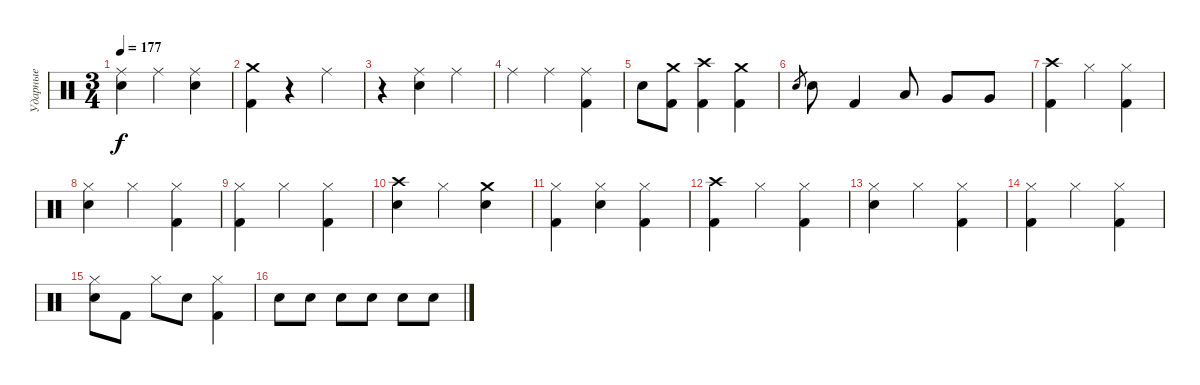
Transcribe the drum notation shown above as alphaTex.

\track ("Ударные" "Ударные") {instrument percussion}
\staff {score}
\articulation defaults
\ts (3 4)
\tempo 177
\clef neutral
\ks c
("Ride (middle)" "Snare (hit) 2").4{dy f} "Ride (middle)".4 ("Ride (middle)" "Snare (hit) 2").4 |
("Crash medium (hit)" "Kick (hit) 2").4 r.4 "Ride (middle)".4 |
r.4 ("Ride (middle)" "Snare (hit) 2").4 "Ride (middle)".4 |
"Ride (middle)".4 "Ride (middle)".4 ("Ride (middle)" "Kick (hit) 2").4 |
"Snare (hit) 2".8 ("Crash medium (hit)" "Kick (hit) 2").8 ("Crash high (hit)" "Kick (hit) 2").4 ("Crash medium (hit)" "Kick (hit) 2").4 |
"Snare (hit) 2".8{gr} "Snare (hit) 2".8 "Kick (hit) 2".4 "Low Tom (hit)".8 "Very Low Tom (hit)".8 "Very Low Tom (hit)".8 |
("Crash high (hit)" "Kick (hit) 2").4 "Hi-Hat (closed)".4 ("Hi-Hat (closed)" "Kick (hit) 2").4 |
("Hi-Hat (closed)" "Snare (hit) 2").4 "Hi-Hat (closed)".4 ("Hi-Hat (closed)" "Kick (hit) 2").4 |
("Hi-Hat (closed)" "Kick (hit) 2").4 "Hi-Hat (closed)".4 ("Hi-Hat (closed)" "Kick (hit) 2").4 |
("Crash high (hit)" "Snare (hit) 2").4 "Hi-Hat (closed)".4 ("Crash medium (hit)" "Snare (hit) 2").4 |
("Hi-Hat (closed)" "Kick (hit) 2").4 ("Hi-Hat (closed)" "Snare (hit) 2").4 ("Hi-Hat (closed)" "Kick (hit) 2").4 |
("Crash high (hit)" "Kick (hit) 2").4 "Hi-Hat (closed)".4 ("Hi-Hat (closed)" "Kick (hit) 2").4 |
("Hi-Hat (closed)" "Snare (hit) 2").4 "Hi-Hat (closed)".4 ("Hi-Hat (closed)" "Kick (hit) 2").4 |
("Hi-Hat (closed)" "Kick (hit) 2").4 "Hi-Hat (closed)".4 ("Hi-Hat (closed)" "Kick (hit) 2").4 |
("Hi-Hat (closed)" "Snare (hit) 2").8 "Kick (hit) 2".8 "Hi-Hat (closed)".8 "Snare (hit) 2".8 ("Hi-Hat (closed)" "Kick (hit) 2").4 |
"Snare (hit) 2".8 "Snare (hit) 2".8 "Snare (hit) 2".8 "Snare (hit) 2".8 "Snare (hit) 2".8 "Snare (hit) 2".8
